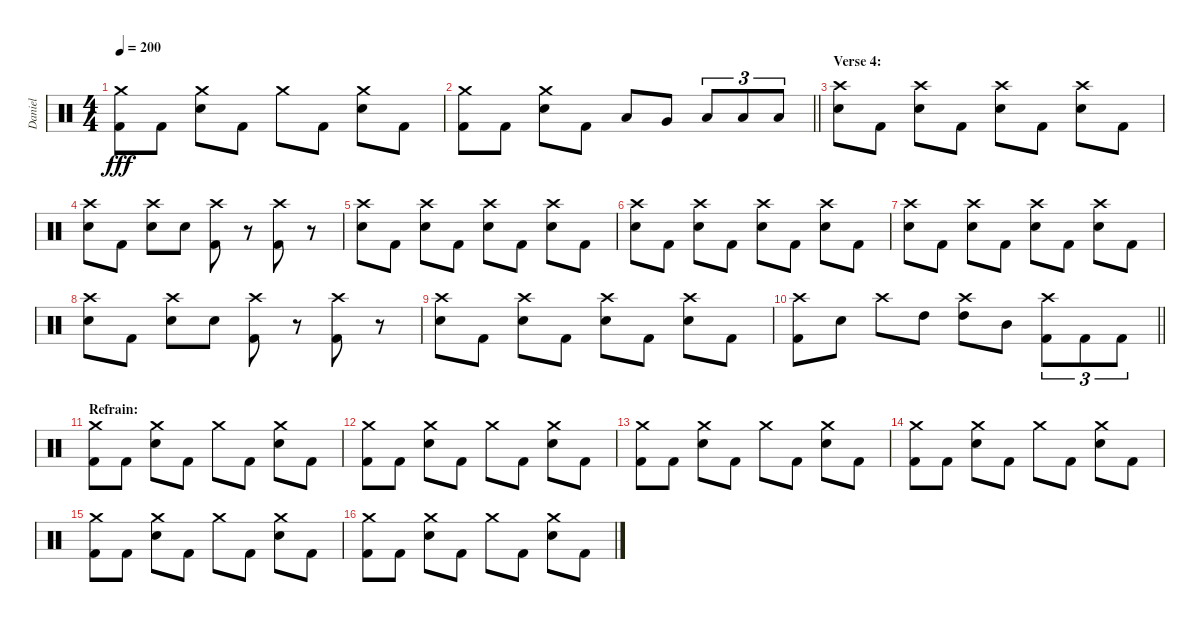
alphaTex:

\track ("Daniel" "Daniel") {instrument percussion}
\staff {score}
\articulation defaults
\ts (4 4)
\tempo 200
\clef neutral
\ks c
("Crash medium (hit)" "Kick (hit) 2").8{dy fff} "Kick (hit) 2".8 ("Crash medium (hit)" "Electric Snare (hit)").8 "Kick (hit) 2".8 "Crash medium (hit)".8 "Kick (hit) 2".8 ("Crash medium (hit)" "Electric Snare (hit)").8 "Kick (hit) 2".8 |
\barLineRight lightlight
("Crash medium (hit)" "Kick (hit) 2").8 "Kick (hit) 2".8 ("Crash medium (hit)" "Electric Snare (hit)").8 "Kick (hit) 2".8 "Low Tom (hit)".8 "Very Low Tom (hit)".8 "Low Floor Tom (hit)".8{tu (3 2)} "Low Floor Tom (hit)".8{tu (3 2)} "Low Floor Tom (hit)".8{tu (3 2)} |
\section ("" "Verse 4:")
("Crash high (hit)" "Electric Snare (hit)").8 "Kick (hit) 2".8 ("Crash high (hit)" "Electric Snare (hit)").8 "Kick (hit) 2".8 ("Crash high (hit)" "Electric Snare (hit)").8 "Kick (hit) 2".8 ("Crash high (hit)" "Electric Snare (hit)").8 "Kick (hit) 2".8 |
("Crash high (hit)" "Electric Snare (hit)").8 "Kick (hit) 2".8 ("Crash high (hit)" "Electric Snare (hit)").8 "Electric Snare (hit)".8 ("Crash high (hit)" "Kick (hit) 2").8 r.8 ("Crash high (hit)" "Kick (hit) 2").8 r.8 |
("Crash high (hit)" "Electric Snare (hit)").8 "Kick (hit) 2".8 ("Crash high (hit)" "Electric Snare (hit)").8 "Kick (hit) 2".8 ("Crash high (hit)" "Electric Snare (hit)").8 "Kick (hit) 2".8 ("Crash high (hit)" "Electric Snare (hit)").8 "Kick (hit) 2".8 |
("Crash high (hit)" "Electric Snare (hit)").8 "Kick (hit) 2".8 ("Crash high (hit)" "Electric Snare (hit)").8 "Kick (hit) 2".8 ("Crash high (hit)" "Electric Snare (hit)").8 "Kick (hit) 2".8 ("Crash high (hit)" "Electric Snare (hit)").8 "Kick (hit) 2".8 |
("Crash high (hit)" "Electric Snare (hit)").8 "Kick (hit) 2".8 ("Crash high (hit)" "Electric Snare (hit)").8 "Kick (hit) 2".8 ("Crash high (hit)" "Electric Snare (hit)").8 "Kick (hit) 2".8 ("Crash high (hit)" "Electric Snare (hit)").8 "Kick (hit) 2".8 |
("Crash high (hit)" "Electric Snare (hit)").8 "Kick (hit) 2".8 ("Crash high (hit)" "Electric Snare (hit)").8 "Electric Snare (hit)".8 ("Crash high (hit)" "Kick (hit) 2").8 r.8 ("Crash high (hit)" "Kick (hit) 2").8 r.8 |
("Crash high (hit)" "Electric Snare (hit)").8 "Kick (hit) 2".8 ("Crash high (hit)" "Electric Snare (hit)").8 "Kick (hit) 2".8 ("Crash high (hit)" "Electric Snare (hit)").8 "Kick (hit) 2".8 ("Crash high (hit)" "Electric Snare (hit)").8 "Kick (hit) 2".8 |
\barLineRight lightlight
("Crash high (hit)" "Kick (hit) 2").8 "Electric Snare (hit)".8 "Crash high (hit)".8 "High Tom (hit)".8 ("Crash high (hit)" "High Tom (hit)").8 "Mid Tom (hit)".8 ("Crash high (hit)" "Kick (hit) 2").8{tu (3 2)} "Kick (hit) 2".8{tu (3 2)} "Kick (hit) 2".8{tu (3 2)} |
\section ("" "Refrain:")
("Crash medium (hit)" "Kick (hit) 2").8 "Kick (hit) 2".8 ("Crash medium (hit)" "Electric Snare (hit)").8 "Kick (hit) 2".8 "Crash medium (hit)".8 "Kick (hit) 2".8 ("Crash medium (hit)" "Electric Snare (hit)").8 "Kick (hit) 2".8 |
("Crash medium (hit)" "Kick (hit) 2").8 "Kick (hit) 2".8 ("Crash medium (hit)" "Electric Snare (hit)").8 "Kick (hit) 2".8 "Crash medium (hit)".8 "Kick (hit) 2".8 ("Crash medium (hit)" "Electric Snare (hit)").8 "Kick (hit) 2".8 |
("Crash medium (hit)" "Kick (hit) 2").8 "Kick (hit) 2".8 ("Crash medium (hit)" "Electric Snare (hit)").8 "Kick (hit) 2".8 "Crash medium (hit)".8 "Kick (hit) 2".8 ("Crash medium (hit)" "Electric Snare (hit)").8 "Kick (hit) 2".8 |
("Crash medium (hit)" "Kick (hit) 2").8 "Kick (hit) 2".8 ("Crash medium (hit)" "Electric Snare (hit)").8 "Kick (hit) 2".8 "Crash medium (hit)".8 "Kick (hit) 2".8 ("Crash medium (hit)" "Electric Snare (hit)").8 "Kick (hit) 2".8 |
("Crash medium (hit)" "Kick (hit) 2").8 "Kick (hit) 2".8 ("Crash medium (hit)" "Electric Snare (hit)").8 "Kick (hit) 2".8 "Crash medium (hit)".8 "Kick (hit) 2".8 ("Crash medium (hit)" "Electric Snare (hit)").8 "Kick (hit) 2".8 |
("Crash medium (hit)" "Kick (hit) 2").8 "Kick (hit) 2".8 ("Crash medium (hit)" "Electric Snare (hit)").8 "Kick (hit) 2".8 "Crash medium (hit)".8 "Kick (hit) 2".8 ("Crash medium (hit)" "Electric Snare (hit)").8 "Kick (hit) 2".8
